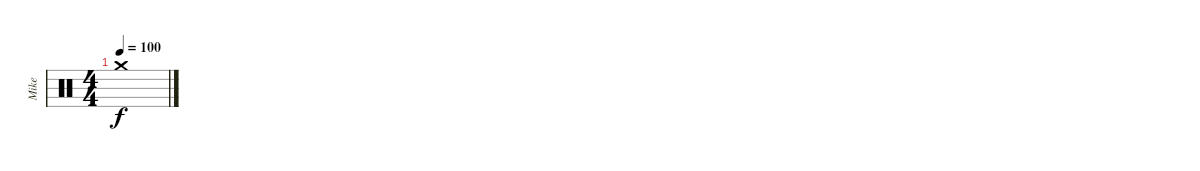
\track ("Mike" "Mike") {instrument percussion}
\staff {score}
\articulation defaults
\ts (4 4)
\tempo 100
\clef neutral
\ks c "Crash medium (hit)".1{dy f}
